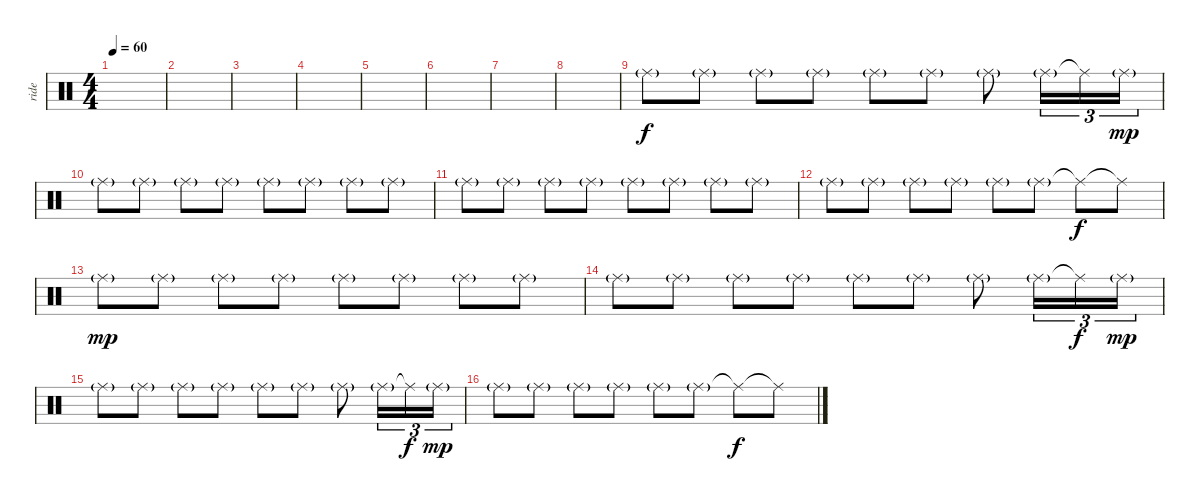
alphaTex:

\track ("ride" "ride") {instrument percussion}
\staff {score}
\articulation defaults
\ts (4 4)
\tempo 60
\clef neutral
\ks c
|
|
|
|
|
|
|
|
"Ride (middle)"{g}.8 "Ride (middle)"{g}.8 "Ride (middle)"{g}.8 "Ride (middle)"{g}.8 "Ride (middle)"{g}.8 "Ride (middle)"{g}.8 "Ride (middle)"{g}.8 "Ride (middle)"{g}.16{tu (3 2)} "Ride (middle)"{t}.16{tu (3 2) dy f} "Ride (middle)"{g}.16{tu (3 2) dy mp} |
"Ride (middle)"{g}.8 "Ride (middle)"{g}.8 "Ride (middle)"{g}.8 "Ride (middle)"{g}.8 "Ride (middle)"{g}.8 "Ride (middle)"{g}.8 "Ride (middle)"{g}.8 "Ride (middle)"{g}.8 |
"Ride (middle)"{g}.8 "Ride (middle)"{g}.8 "Ride (middle)"{g}.8 "Ride (middle)"{g}.8 "Ride (middle)"{g}.8 "Ride (middle)"{g}.8 "Ride (middle)"{g}.8 "Ride (middle)"{g}.8 |
"Ride (middle)"{g}.8 "Ride (middle)"{g}.8 "Ride (middle)"{g}.8 "Ride (middle)"{g}.8 "Ride (middle)"{g}.8 "Ride (middle)"{g}.8 "Ride (middle)"{t}.8{dy f} "Ride (middle)"{t}.8 |
"Ride (middle)"{g}.8{dy mp} "Ride (middle)"{g}.8 "Ride (middle)"{g}.8 "Ride (middle)"{g}.8 "Ride (middle)"{g}.8 "Ride (middle)"{g}.8 "Ride (middle)"{g}.8 "Ride (middle)"{g}.8 |
"Ride (middle)"{g}.8 "Ride (middle)"{g}.8 "Ride (middle)"{g}.8 "Ride (middle)"{g}.8 "Ride (middle)"{g}.8 "Ride (middle)"{g}.8 "Ride (middle)"{g}.8 "Ride (middle)"{g}.16{tu (3 2)} "Ride (middle)"{t}.16{tu (3 2) dy f} "Ride (middle)"{g}.16{tu (3 2) dy mp} |
"Ride (middle)"{g}.8 "Ride (middle)"{g}.8 "Ride (middle)"{g}.8 "Ride (middle)"{g}.8 "Ride (middle)"{g}.8 "Ride (middle)"{g}.8 "Ride (middle)"{g}.8 "Ride (middle)"{g}.16{tu (3 2)} "Ride (middle)"{t}.16{tu (3 2) dy f} "Ride (middle)"{g}.16{tu (3 2) dy mp} |
"Ride (middle)"{g}.8 "Ride (middle)"{g}.8 "Ride (middle)"{g}.8 "Ride (middle)"{g}.8 "Ride (middle)"{g}.8 "Ride (middle)"{g}.8 "Ride (middle)"{t}.8{dy f} "Ride (middle)"{t}.8
